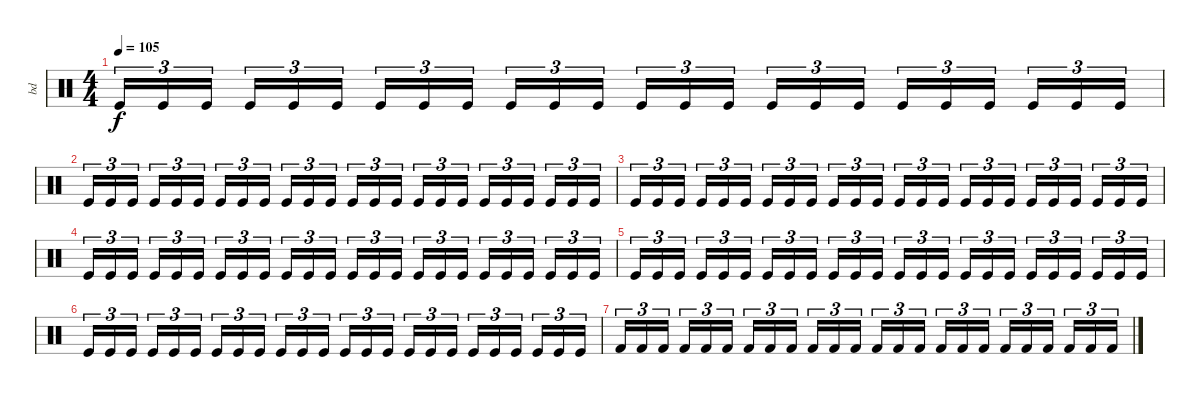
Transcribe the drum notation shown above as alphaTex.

\track ("bd" "bd") {instrument percussion}
\staff
\articulation defaults
\ts (4 4)
\tempo 105
\clef neutral
\ks c "Kick (hit)".16{tu (3 2) dy f} "Kick (hit)".16{tu (3 2)} "Kick (hit)".16{tu (3 2) beam splitsecondary} "Kick (hit)".16{tu (3 2)} "Kick (hit)".16{tu (3 2)} "Kick (hit)".16{tu (3 2)} "Kick (hit)".16{tu (3 2)} "Kick (hit)".16{tu (3 2)} "Kick (hit)".16{tu (3 2) beam splitsecondary} "Kick (hit)".16{tu (3 2)} "Kick (hit)".16{tu (3 2)} "Kick (hit)".16{tu (3 2)} "Kick (hit)".16{tu (3 2)} "Kick (hit)".16{tu (3 2)} "Kick (hit)".16{tu (3 2) beam splitsecondary} "Kick (hit)".16{tu (3 2)} "Kick (hit)".16{tu (3 2)} "Kick (hit)".16{tu (3 2)} "Kick (hit)".16{tu (3 2)} "Kick (hit)".16{tu (3 2)} "Kick (hit)".16{tu (3 2) beam splitsecondary} "Kick (hit)".16{tu (3 2)} "Kick (hit)".16{tu (3 2)} "Kick (hit)".16{tu (3 2)}
|
"Kick (hit)".16{tu (3 2)} "Kick (hit)".16{tu (3 2)} "Kick (hit)".16{tu (3 2) beam splitsecondary} "Kick (hit)".16{tu (3 2)} "Kick (hit)".16{tu (3 2)} "Kick (hit)".16{tu (3 2)} "Kick (hit)".16{tu (3 2)} "Kick (hit)".16{tu (3 2)} "Kick (hit)".16{tu (3 2) beam splitsecondary} "Kick (hit)".16{tu (3 2)} "Kick (hit)".16{tu (3 2)} "Kick (hit)".16{tu (3 2)} "Kick (hit)".16{tu (3 2)} "Kick (hit)".16{tu (3 2)} "Kick (hit)".16{tu (3 2) beam splitsecondary} "Kick (hit)".16{tu (3 2)} "Kick (hit)".16{tu (3 2)} "Kick (hit)".16{tu (3 2)} "Kick (hit)".16{tu (3 2)} "Kick (hit)".16{tu (3 2)} "Kick (hit)".16{tu (3 2) beam splitsecondary} "Kick (hit)".16{tu (3 2)} "Kick (hit)".16{tu (3 2)} "Kick (hit)".16{tu (3 2)} |
"Kick (hit)".16{tu (3 2)} "Kick (hit)".16{tu (3 2)} "Kick (hit)".16{tu (3 2) beam splitsecondary} "Kick (hit)".16{tu (3 2)} "Kick (hit)".16{tu (3 2)} "Kick (hit)".16{tu (3 2)} "Kick (hit)".16{tu (3 2)} "Kick (hit)".16{tu (3 2)} "Kick (hit)".16{tu (3 2) beam splitsecondary} "Kick (hit)".16{tu (3 2)} "Kick (hit)".16{tu (3 2)} "Kick (hit)".16{tu (3 2)} "Kick (hit)".16{tu (3 2)} "Kick (hit)".16{tu (3 2)} "Kick (hit)".16{tu (3 2) beam splitsecondary} "Kick (hit)".16{tu (3 2)} "Kick (hit)".16{tu (3 2)} "Kick (hit)".16{tu (3 2)} "Kick (hit)".16{tu (3 2)} "Kick (hit)".16{tu (3 2)} "Kick (hit)".16{tu (3 2) beam splitsecondary} "Kick (hit)".16{tu (3 2)} "Kick (hit)".16{tu (3 2)} "Kick (hit)".16{tu (3 2)} |
"Kick (hit)".16{tu (3 2)} "Kick (hit)".16{tu (3 2)} "Kick (hit)".16{tu (3 2) beam splitsecondary} "Kick (hit)".16{tu (3 2)} "Kick (hit)".16{tu (3 2)} "Kick (hit)".16{tu (3 2)} "Kick (hit)".16{tu (3 2)} "Kick (hit)".16{tu (3 2)} "Kick (hit)".16{tu (3 2) beam splitsecondary} "Kick (hit)".16{tu (3 2)} "Kick (hit)".16{tu (3 2)} "Kick (hit)".16{tu (3 2)} "Kick (hit)".16{tu (3 2)} "Kick (hit)".16{tu (3 2)} "Kick (hit)".16{tu (3 2) beam splitsecondary} "Kick (hit)".16{tu (3 2)} "Kick (hit)".16{tu (3 2)} "Kick (hit)".16{tu (3 2)} "Kick (hit)".16{tu (3 2)} "Kick (hit)".16{tu (3 2)} "Kick (hit)".16{tu (3 2) beam splitsecondary} "Kick (hit)".16{tu (3 2)} "Kick (hit)".16{tu (3 2)} "Kick (hit)".16{tu (3 2)} |
"Kick (hit)".16{tu (3 2)} "Kick (hit)".16{tu (3 2)} "Kick (hit)".16{tu (3 2) beam splitsecondary} "Kick (hit)".16{tu (3 2)} "Kick (hit)".16{tu (3 2)} "Kick (hit)".16{tu (3 2)} "Kick (hit)".16{tu (3 2)} "Kick (hit)".16{tu (3 2)} "Kick (hit)".16{tu (3 2) beam splitsecondary} "Kick (hit)".16{tu (3 2)} "Kick (hit)".16{tu (3 2)} "Kick (hit)".16{tu (3 2)} "Kick (hit)".16{tu (3 2)} "Kick (hit)".16{tu (3 2)} "Kick (hit)".16{tu (3 2) beam splitsecondary} "Kick (hit)".16{tu (3 2)} "Kick (hit)".16{tu (3 2)} "Kick (hit)".16{tu (3 2)} "Kick (hit)".16{tu (3 2)} "Kick (hit)".16{tu (3 2)} "Kick (hit)".16{tu (3 2) beam splitsecondary} "Kick (hit)".16{tu (3 2)} "Kick (hit)".16{tu (3 2)} "Kick (hit)".16{tu (3 2)} |
"Kick (hit)".16{tu (3 2)} "Kick (hit)".16{tu (3 2)} "Kick (hit)".16{tu (3 2) beam splitsecondary} "Kick (hit)".16{tu (3 2)} "Kick (hit)".16{tu (3 2)} "Kick (hit)".16{tu (3 2)} "Kick (hit)".16{tu (3 2)} "Kick (hit)".16{tu (3 2)} "Kick (hit)".16{tu (3 2) beam splitsecondary} "Kick (hit)".16{tu (3 2)} "Kick (hit)".16{tu (3 2)} "Kick (hit)".16{tu (3 2)} "Kick (hit)".16{tu (3 2)} "Kick (hit)".16{tu (3 2)} "Kick (hit)".16{tu (3 2) beam splitsecondary} "Kick (hit)".16{tu (3 2)} "Kick (hit)".16{tu (3 2)} "Kick (hit)".16{tu (3 2)} "Kick (hit)".16{tu (3 2)} "Kick (hit)".16{tu (3 2)} "Kick (hit)".16{tu (3 2) beam splitsecondary} "Kick (hit)".16{tu (3 2)} "Kick (hit)".16{tu (3 2)} "Kick (hit)".16{tu (3 2)} |
"Kick (hit) 2".16{tu (3 2)} "Kick (hit) 2".16{tu (3 2)} "Kick (hit) 2".16{tu (3 2) beam splitsecondary} "Kick (hit) 2".16{tu (3 2)} "Kick (hit) 2".16{tu (3 2)} "Kick (hit) 2".16{tu (3 2)} "Kick (hit) 2".16{tu (3 2)} "Kick (hit) 2".16{tu (3 2)} "Kick (hit) 2".16{tu (3 2) beam splitsecondary} "Kick (hit) 2".16{tu (3 2)} "Kick (hit) 2".16{tu (3 2)} "Kick (hit) 2".16{tu (3 2)} "Kick (hit) 2".16{tu (3 2)} "Kick (hit) 2".16{tu (3 2)} "Kick (hit) 2".16{tu (3 2) beam splitsecondary} "Kick (hit) 2".16{tu (3 2)} "Kick (hit) 2".16{tu (3 2)} "Kick (hit) 2".16{tu (3 2)} "Kick (hit) 2".16{tu (3 2)} "Kick (hit) 2".16{tu (3 2)} "Kick (hit) 2".16{tu (3 2) beam splitsecondary} "Kick (hit) 2".16{tu (3 2)} "Kick (hit) 2".16{tu (3 2)} "Kick (hit) 2".16{tu (3 2)}
